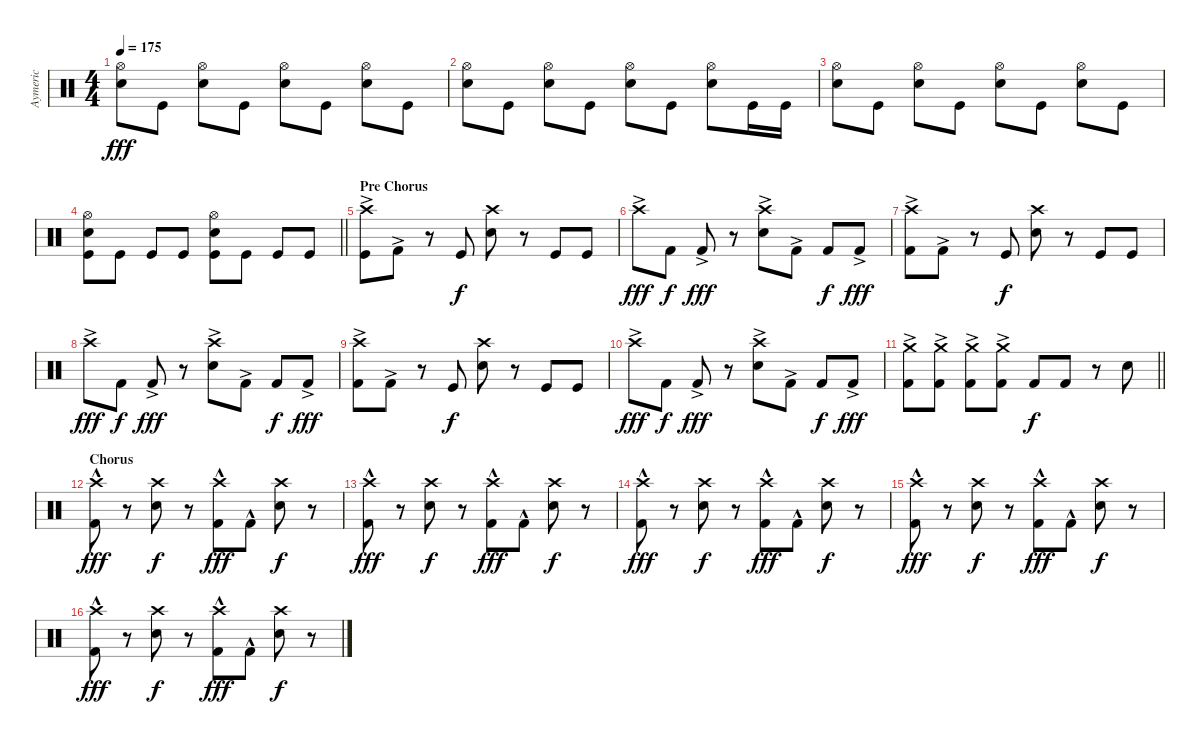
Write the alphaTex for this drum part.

\track ("Aymeric" "Aymeric") {instrument percussion}
\staff {score}
\articulation defaults
\ts (4 4)
\tempo 175
\clef neutral
\ks c
("Hi-Hat (open)" "Snare (hit) 2").8{dy fff} "Kick (hit)".8 ("Hi-Hat (open)" "Snare (hit) 2").8 "Kick (hit)".8 ("Hi-Hat (open)" "Snare (hit) 2").8 "Kick (hit)".8 ("Hi-Hat (open)" "Snare (hit) 2").8 "Kick (hit)".8 |
("Hi-Hat (open)" "Snare (hit) 2").8 "Kick (hit)".8 ("Hi-Hat (open)" "Snare (hit) 2").8 "Kick (hit)".8 ("Hi-Hat (open)" "Snare (hit) 2").8 "Kick (hit)".8 ("Hi-Hat (open)" "Snare (hit) 2").8 "Kick (hit)".16 "Kick (hit)".16 |
("Hi-Hat (open)" "Snare (hit) 2").8 "Kick (hit)".8 ("Hi-Hat (open)" "Snare (hit) 2").8 "Kick (hit)".8 ("Hi-Hat (open)" "Snare (hit) 2").8 "Kick (hit)".8 ("Hi-Hat (open)" "Snare (hit) 2").8 "Kick (hit)".8 |
\barLineRight lightlight
("Hi-Hat (open)" "Snare (hit) 2" "Kick (hit)").8 "Kick (hit)".8 "Kick (hit)".8 "Kick (hit)".8 ("Hi-Hat (open)" "Snare (hit) 2" "Kick (hit)").8 "Kick (hit)".8 "Kick (hit)".8 "Kick (hit)".8 |
\section ("" "Pre Chorus")
("Crash high (hit)"{ac} "Kick (hit)"{ac}).8 "Kick (hit) 2"{ac}.8 r.8 "Kick (hit)".8{dy f} ("Crash high (hit)" "Snare (hit) 2").8 r.8 "Kick (hit)".8 "Kick (hit)".8 |
"Crash high (hit)"{ac}.8{dy fff} "Kick (hit) 2".8{dy f} "Kick (hit) 2"{ac}.8{dy fff} r.8 ("Crash high (hit)"{ac} "Snare (hit) 2").8 "Kick (hit) 2"{ac}.8 "Kick (hit) 2".8{dy f} "Kick (hit) 2"{ac}.8{dy fff} |
("Crash high (hit)"{ac} "Kick (hit) 2"{ac}).8 "Kick (hit) 2"{ac}.8 r.8 "Kick (hit)".8{dy f} ("Crash high (hit)" "Snare (hit) 2").8 r.8 "Kick (hit)".8 "Kick (hit)".8 |
"Crash high (hit)"{ac}.8{dy fff} "Kick (hit) 2".8{dy f} "Kick (hit) 2"{ac}.8{dy fff} r.8 ("Crash high (hit)"{ac} "Snare (hit) 2").8 "Kick (hit) 2"{ac}.8 "Kick (hit) 2".8{dy f} "Kick (hit) 2"{ac}.8{dy fff} |
("Crash high (hit)"{ac} "Kick (hit) 2"{ac}).8 "Kick (hit) 2"{ac}.8 r.8 "Kick (hit)".8{dy f} ("Crash high (hit)" "Snare (hit) 2").8 r.8 "Kick (hit)".8 "Kick (hit)".8 |
"Crash high (hit)"{ac}.8{dy fff} "Kick (hit) 2".8{dy f} "Kick (hit) 2"{ac}.8{dy fff} r.8 ("Crash high (hit)"{ac} "Snare (hit) 2").8 "Kick (hit) 2"{ac}.8 "Kick (hit) 2".8{dy f} "Kick (hit) 2"{ac}.8{dy fff} |
\barLineRight lightlight
("Crash medium (hit)"{ac} "Kick (hit) 2"{ac}).8 ("Crash medium (hit)"{ac} "Kick (hit) 2"{ac}).8 ("Crash medium (hit)"{ac} "Kick (hit) 2"{ac}).8 ("Crash medium (hit)"{ac} "Kick (hit) 2"{ac}).8 "Kick (hit) 2".8{dy f} "Kick (hit) 2".8 r.8 "Snare (hit) 2".8 |
\section ("" "Chorus")
("Crash high (hit)" "Kick (hit) 2"{hac}).8{dy fff} r.8 ("Crash high (hit)" "Snare (hit) 2").8{dy f} r.8 ("Crash high (hit)" "Kick (hit) 2"{hac}).8{dy fff} "Kick (hit) 2"{hac}.8 ("Crash high (hit)" "Snare (hit) 2").8{dy f} r.8 |
("Crash high (hit)" "Kick (hit) 2"{hac}).8{dy fff} r.8 ("Crash high (hit)" "Snare (hit) 2").8{dy f} r.8 ("Crash high (hit)" "Kick (hit) 2"{hac}).8{dy fff} "Kick (hit) 2"{hac}.8 ("Crash high (hit)" "Snare (hit) 2").8{dy f} r.8 |
("Crash high (hit)" "Kick (hit) 2"{hac}).8{dy fff} r.8 ("Crash high (hit)" "Snare (hit) 2").8{dy f} r.8 ("Crash high (hit)" "Kick (hit) 2"{hac}).8{dy fff} "Kick (hit) 2"{hac}.8 ("Crash high (hit)" "Snare (hit) 2").8{dy f} r.8 |
("Crash high (hit)" "Kick (hit) 2"{hac}).8{dy fff} r.8 ("Crash high (hit)" "Snare (hit) 2").8{dy f} r.8 ("Crash high (hit)" "Kick (hit) 2"{hac}).8{dy fff} "Kick (hit) 2"{hac}.8 ("Crash high (hit)" "Snare (hit) 2").8{dy f} r.8 |
("Crash high (hit)" "Kick (hit) 2"{hac}).8{dy fff} r.8 ("Crash high (hit)" "Snare (hit) 2").8{dy f} r.8 ("Crash high (hit)" "Kick (hit) 2"{hac}).8{dy fff} "Kick (hit) 2"{hac}.8 ("Crash high (hit)" "Snare (hit) 2").8{dy f} r.8
